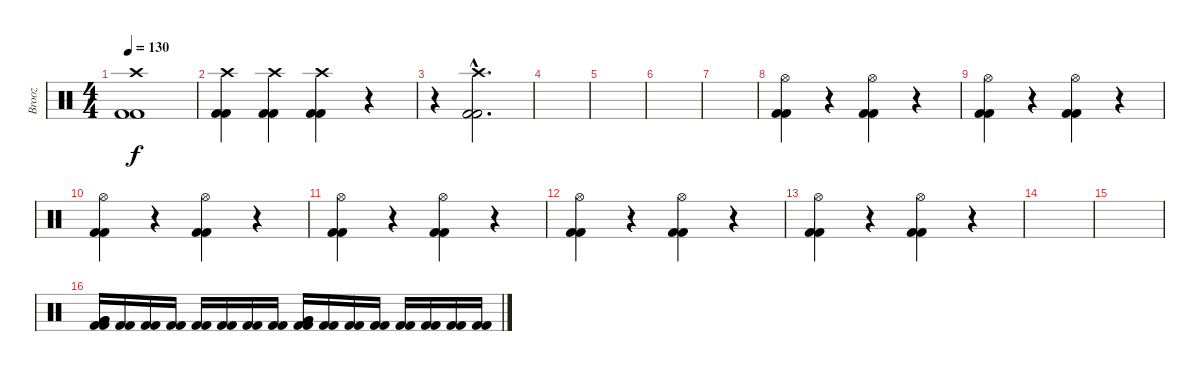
\track ("Brooz" "Brooz") {instrument percussion}
\staff {score}
\articulation defaults
\ts (4 4)
\tempo 130
\clef neutral
\ks c
("Crash high (hit)" "Kick (hit) 2" "Kick (hit) 2").1{dy f} |
("Crash high (hit)" "Kick (hit) 2" "Kick (hit) 2").4 ("Crash high (hit)" "Kick (hit) 2" "Kick (hit) 2").4 ("Crash high (hit)" "Kick (hit) 2" "Kick (hit) 2").4 r.4 |
r.4 ("Crash high (hit)"{hac} "Kick (hit) 2"{hac} "Kick (hit) 2"{hac}).2{d} |
|
|
|
|
("Hi-Hat (open)" "Kick (hit) 2" "Kick (hit) 2").4 r.4 ("Hi-Hat (open)" "Kick (hit) 2" "Kick (hit) 2").4 r.4 |
("Hi-Hat (open)" "Kick (hit) 2" "Kick (hit) 2").4 r.4 ("Hi-Hat (open)" "Kick (hit) 2" "Kick (hit) 2").4 r.4 |
("Hi-Hat (open)" "Kick (hit) 2" "Kick (hit) 2").4 r.4 ("Hi-Hat (open)" "Kick (hit) 2" "Kick (hit) 2").4 r.4 |
("Hi-Hat (open)" "Kick (hit) 2" "Kick (hit) 2").4 r.4 ("Hi-Hat (open)" "Kick (hit) 2" "Kick (hit) 2").4 r.4 |
("Hi-Hat (open)" "Kick (hit) 2" "Kick (hit) 2").4 r.4 ("Hi-Hat (open)" "Kick (hit) 2" "Kick (hit) 2").4 r.4 |
("Hi-Hat (open)" "Kick (hit) 2" "Kick (hit) 2").4 r.4 ("Hi-Hat (open)" "Kick (hit) 2" "Kick (hit) 2").4 r.4 |
|
|
("Very Low Tom (hit)" "Very Low Tom (hit)" "Kick (hit) 2" "Kick (hit) 2").16 ("Kick (hit) 2" "Kick (hit) 2").16 ("Kick (hit) 2" "Kick (hit) 2").16 ("Kick (hit) 2" "Kick (hit) 2").16 ("Kick (hit) 2" "Kick (hit) 2").16 ("Kick (hit) 2" "Kick (hit) 2").16 ("Kick (hit) 2" "Kick (hit) 2").16 ("Kick (hit) 2" "Kick (hit) 2").16 ("Very Low Tom (hit)" "Very Low Tom (hit)" "Kick (hit) 2" "Kick (hit) 2").16 ("Kick (hit) 2" "Kick (hit) 2").16 ("Kick (hit) 2" "Kick (hit) 2").16 ("Kick (hit) 2" "Kick (hit) 2").16 ("Kick (hit) 2" "Kick (hit) 2").16 ("Kick (hit) 2" "Kick (hit) 2").16 ("Kick (hit) 2" "Kick (hit) 2").16 ("Kick (hit) 2" "Kick (hit) 2").16
